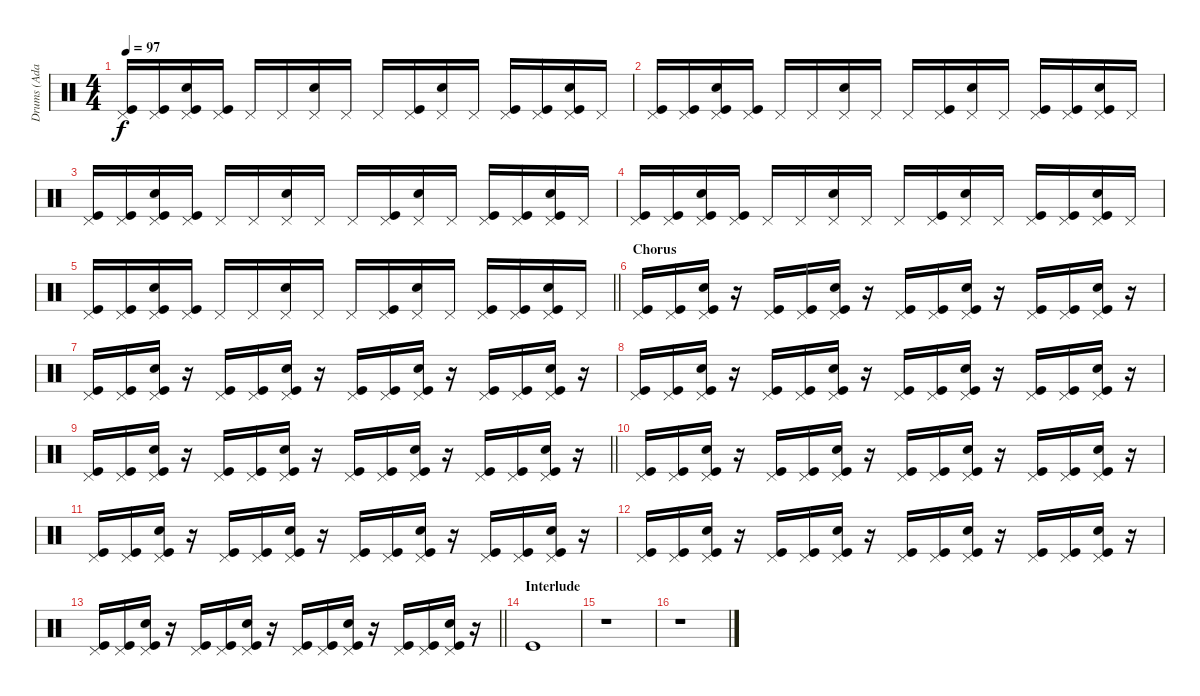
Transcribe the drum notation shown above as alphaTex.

\track ("Drums (Adam)" "Drums (Ada") {instrument percussion}
\staff {score}
\articulation defaults
\ts (4 4)
\tempo 97
\clef neutral
\ks c
("Kick (hit)" "Pedal Hi-Hat (hit)").16{dy f} ("Kick (hit)" "Pedal Hi-Hat (hit)").16 ("Kick (hit)" "Snare (hit) 2" "Pedal Hi-Hat (hit)").16 ("Kick (hit)" "Pedal Hi-Hat (hit)").16 "Pedal Hi-Hat (hit)".16 "Pedal Hi-Hat (hit)".16 ("Snare (hit) 2" "Pedal Hi-Hat (hit)").16 "Pedal Hi-Hat (hit)".16 "Pedal Hi-Hat (hit)".16 ("Kick (hit)" "Pedal Hi-Hat (hit)").16 ("Snare (hit) 2" "Pedal Hi-Hat (hit)").16 "Pedal Hi-Hat (hit)".16 ("Kick (hit)" "Pedal Hi-Hat (hit)").16 ("Kick (hit)" "Pedal Hi-Hat (hit)").16 ("Kick (hit)" "Pedal Hi-Hat (hit)" "Snare (hit) 2").16 "Pedal Hi-Hat (hit)".16 |
("Kick (hit)" "Pedal Hi-Hat (hit)").16 ("Kick (hit)" "Pedal Hi-Hat (hit)").16 ("Kick (hit)" "Snare (hit) 2" "Pedal Hi-Hat (hit)").16 ("Kick (hit)" "Pedal Hi-Hat (hit)").16 "Pedal Hi-Hat (hit)".16 "Pedal Hi-Hat (hit)".16 ("Snare (hit) 2" "Pedal Hi-Hat (hit)").16 "Pedal Hi-Hat (hit)".16 "Pedal Hi-Hat (hit)".16 ("Kick (hit)" "Pedal Hi-Hat (hit)").16 ("Snare (hit) 2" "Pedal Hi-Hat (hit)").16 "Pedal Hi-Hat (hit)".16 ("Kick (hit)" "Pedal Hi-Hat (hit)").16 ("Kick (hit)" "Pedal Hi-Hat (hit)").16 ("Kick (hit)" "Pedal Hi-Hat (hit)" "Snare (hit) 2").16 "Pedal Hi-Hat (hit)".16 |
("Kick (hit)" "Pedal Hi-Hat (hit)").16 ("Kick (hit)" "Pedal Hi-Hat (hit)").16 ("Kick (hit)" "Snare (hit) 2" "Pedal Hi-Hat (hit)").16 ("Kick (hit)" "Pedal Hi-Hat (hit)").16 "Pedal Hi-Hat (hit)".16 "Pedal Hi-Hat (hit)".16 ("Snare (hit) 2" "Pedal Hi-Hat (hit)").16 "Pedal Hi-Hat (hit)".16 "Pedal Hi-Hat (hit)".16 ("Kick (hit)" "Pedal Hi-Hat (hit)").16 ("Snare (hit) 2" "Pedal Hi-Hat (hit)").16 "Pedal Hi-Hat (hit)".16 ("Kick (hit)" "Pedal Hi-Hat (hit)").16 ("Kick (hit)" "Pedal Hi-Hat (hit)").16 ("Kick (hit)" "Pedal Hi-Hat (hit)" "Snare (hit) 2").16 "Pedal Hi-Hat (hit)".16 |
("Kick (hit)" "Pedal Hi-Hat (hit)").16 ("Kick (hit)" "Pedal Hi-Hat (hit)").16 ("Kick (hit)" "Snare (hit) 2" "Pedal Hi-Hat (hit)").16 ("Kick (hit)" "Pedal Hi-Hat (hit)").16 "Pedal Hi-Hat (hit)".16 "Pedal Hi-Hat (hit)".16 ("Snare (hit) 2" "Pedal Hi-Hat (hit)").16 "Pedal Hi-Hat (hit)".16 "Pedal Hi-Hat (hit)".16 ("Kick (hit)" "Pedal Hi-Hat (hit)").16 ("Snare (hit) 2" "Pedal Hi-Hat (hit)").16 "Pedal Hi-Hat (hit)".16 ("Kick (hit)" "Pedal Hi-Hat (hit)").16 ("Kick (hit)" "Pedal Hi-Hat (hit)").16 ("Kick (hit)" "Pedal Hi-Hat (hit)" "Snare (hit) 2").16 "Pedal Hi-Hat (hit)".16 |
\barLineRight lightlight
("Kick (hit)" "Pedal Hi-Hat (hit)").16 ("Kick (hit)" "Pedal Hi-Hat (hit)").16 ("Kick (hit)" "Snare (hit) 2" "Pedal Hi-Hat (hit)").16 ("Kick (hit)" "Pedal Hi-Hat (hit)").16 "Pedal Hi-Hat (hit)".16 "Pedal Hi-Hat (hit)".16 ("Snare (hit) 2" "Pedal Hi-Hat (hit)").16 "Pedal Hi-Hat (hit)".16 "Pedal Hi-Hat (hit)".16 ("Kick (hit)" "Pedal Hi-Hat (hit)").16 ("Snare (hit) 2" "Pedal Hi-Hat (hit)").16 "Pedal Hi-Hat (hit)".16 ("Kick (hit)" "Pedal Hi-Hat (hit)").16 ("Kick (hit)" "Pedal Hi-Hat (hit)").16 ("Kick (hit)" "Pedal Hi-Hat (hit)" "Snare (hit) 2").16 "Pedal Hi-Hat (hit)".16 |
\section ("" "Chorus")
("Kick (hit)" "Pedal Hi-Hat (hit)").16 ("Kick (hit)" "Pedal Hi-Hat (hit)").16 ("Kick (hit)" "Pedal Hi-Hat (hit)" "Snare (hit) 2").16 r.16 ("Kick (hit)" "Pedal Hi-Hat (hit)").16 ("Kick (hit)" "Pedal Hi-Hat (hit)").16 ("Kick (hit)" "Pedal Hi-Hat (hit)" "Snare (hit) 2").16 r.16 ("Kick (hit)" "Pedal Hi-Hat (hit)").16 ("Kick (hit)" "Pedal Hi-Hat (hit)").16 ("Kick (hit)" "Pedal Hi-Hat (hit)" "Snare (hit) 2").16 r.16 ("Kick (hit)" "Pedal Hi-Hat (hit)").16 ("Kick (hit)" "Pedal Hi-Hat (hit)").16 ("Kick (hit)" "Pedal Hi-Hat (hit)" "Snare (hit) 2").16 r.16 |
("Kick (hit)" "Pedal Hi-Hat (hit)").16 ("Kick (hit)" "Pedal Hi-Hat (hit)").16 ("Kick (hit)" "Pedal Hi-Hat (hit)" "Snare (hit) 2").16 r.16 ("Kick (hit)" "Pedal Hi-Hat (hit)").16 ("Kick (hit)" "Pedal Hi-Hat (hit)").16 ("Kick (hit)" "Pedal Hi-Hat (hit)" "Snare (hit) 2").16 r.16 ("Kick (hit)" "Pedal Hi-Hat (hit)").16 ("Kick (hit)" "Pedal Hi-Hat (hit)").16 ("Kick (hit)" "Pedal Hi-Hat (hit)" "Snare (hit) 2").16 r.16 ("Kick (hit)" "Pedal Hi-Hat (hit)").16 ("Kick (hit)" "Pedal Hi-Hat (hit)").16 ("Kick (hit)" "Pedal Hi-Hat (hit)" "Snare (hit) 2").16 r.16 |
("Kick (hit)" "Pedal Hi-Hat (hit)").16 ("Kick (hit)" "Pedal Hi-Hat (hit)").16 ("Kick (hit)" "Pedal Hi-Hat (hit)" "Snare (hit) 2").16 r.16 ("Kick (hit)" "Pedal Hi-Hat (hit)").16 ("Kick (hit)" "Pedal Hi-Hat (hit)").16 ("Kick (hit)" "Pedal Hi-Hat (hit)" "Snare (hit) 2").16 r.16 ("Kick (hit)" "Pedal Hi-Hat (hit)").16 ("Kick (hit)" "Pedal Hi-Hat (hit)").16 ("Kick (hit)" "Pedal Hi-Hat (hit)" "Snare (hit) 2").16 r.16 ("Kick (hit)" "Pedal Hi-Hat (hit)").16 ("Kick (hit)" "Pedal Hi-Hat (hit)").16 ("Kick (hit)" "Pedal Hi-Hat (hit)" "Snare (hit) 2").16 r.16 |
\barLineRight lightlight
("Kick (hit)" "Pedal Hi-Hat (hit)").16 ("Kick (hit)" "Pedal Hi-Hat (hit)").16 ("Kick (hit)" "Pedal Hi-Hat (hit)" "Snare (hit) 2").16 r.16 ("Kick (hit)" "Pedal Hi-Hat (hit)").16 ("Kick (hit)" "Pedal Hi-Hat (hit)").16 ("Kick (hit)" "Pedal Hi-Hat (hit)" "Snare (hit) 2").16 r.16 ("Kick (hit)" "Pedal Hi-Hat (hit)").16 ("Kick (hit)" "Pedal Hi-Hat (hit)").16 ("Kick (hit)" "Pedal Hi-Hat (hit)" "Snare (hit) 2").16 r.16 ("Kick (hit)" "Pedal Hi-Hat (hit)").16 ("Kick (hit)" "Pedal Hi-Hat (hit)").16 ("Kick (hit)" "Pedal Hi-Hat (hit)" "Snare (hit) 2").16 r.16 |
("Kick (hit)" "Pedal Hi-Hat (hit)").16 ("Kick (hit)" "Pedal Hi-Hat (hit)").16 ("Kick (hit)" "Pedal Hi-Hat (hit)" "Snare (hit) 2").16 r.16 ("Kick (hit)" "Pedal Hi-Hat (hit)").16 ("Kick (hit)" "Pedal Hi-Hat (hit)").16 ("Kick (hit)" "Pedal Hi-Hat (hit)" "Snare (hit) 2").16 r.16 ("Kick (hit)" "Pedal Hi-Hat (hit)").16 ("Kick (hit)" "Pedal Hi-Hat (hit)").16 ("Kick (hit)" "Pedal Hi-Hat (hit)" "Snare (hit) 2").16 r.16 ("Kick (hit)" "Pedal Hi-Hat (hit)").16 ("Kick (hit)" "Pedal Hi-Hat (hit)").16 ("Kick (hit)" "Pedal Hi-Hat (hit)" "Snare (hit) 2").16 r.16 |
("Kick (hit)" "Pedal Hi-Hat (hit)").16 ("Kick (hit)" "Pedal Hi-Hat (hit)").16 ("Kick (hit)" "Pedal Hi-Hat (hit)" "Snare (hit) 2").16 r.16 ("Kick (hit)" "Pedal Hi-Hat (hit)").16 ("Kick (hit)" "Pedal Hi-Hat (hit)").16 ("Kick (hit)" "Pedal Hi-Hat (hit)" "Snare (hit) 2").16 r.16 ("Kick (hit)" "Pedal Hi-Hat (hit)").16 ("Kick (hit)" "Pedal Hi-Hat (hit)").16 ("Kick (hit)" "Pedal Hi-Hat (hit)" "Snare (hit) 2").16 r.16 ("Kick (hit)" "Pedal Hi-Hat (hit)").16 ("Kick (hit)" "Pedal Hi-Hat (hit)").16 ("Kick (hit)" "Pedal Hi-Hat (hit)" "Snare (hit) 2").16 r.16 |
("Kick (hit)" "Pedal Hi-Hat (hit)").16 ("Kick (hit)" "Pedal Hi-Hat (hit)").16 ("Kick (hit)" "Pedal Hi-Hat (hit)" "Snare (hit) 2").16 r.16 ("Kick (hit)" "Pedal Hi-Hat (hit)").16 ("Kick (hit)" "Pedal Hi-Hat (hit)").16 ("Kick (hit)" "Pedal Hi-Hat (hit)" "Snare (hit) 2").16 r.16 ("Kick (hit)" "Pedal Hi-Hat (hit)").16 ("Kick (hit)" "Pedal Hi-Hat (hit)").16 ("Kick (hit)" "Pedal Hi-Hat (hit)" "Snare (hit) 2").16 r.16 ("Kick (hit)" "Pedal Hi-Hat (hit)").16 ("Kick (hit)" "Pedal Hi-Hat (hit)").16 ("Kick (hit)" "Pedal Hi-Hat (hit)" "Snare (hit) 2").16 r.16 |
\barLineRight lightlight
("Kick (hit)" "Pedal Hi-Hat (hit)").16 ("Kick (hit)" "Pedal Hi-Hat (hit)").16 ("Kick (hit)" "Pedal Hi-Hat (hit)" "Snare (hit) 2").16 r.16 ("Kick (hit)" "Pedal Hi-Hat (hit)").16 ("Kick (hit)" "Pedal Hi-Hat (hit)").16 ("Kick (hit)" "Pedal Hi-Hat (hit)" "Snare (hit) 2").16 r.16 ("Kick (hit)" "Pedal Hi-Hat (hit)").16 ("Kick (hit)" "Pedal Hi-Hat (hit)").16 ("Kick (hit)" "Pedal Hi-Hat (hit)" "Snare (hit) 2").16 r.16 ("Kick (hit)" "Pedal Hi-Hat (hit)").16 ("Kick (hit)" "Pedal Hi-Hat (hit)").16 ("Kick (hit)" "Pedal Hi-Hat (hit)" "Snare (hit) 2").16 r.16 |
\section ("" "Interlude")
"Kick (hit)".1 |
r.1 |
r.1
